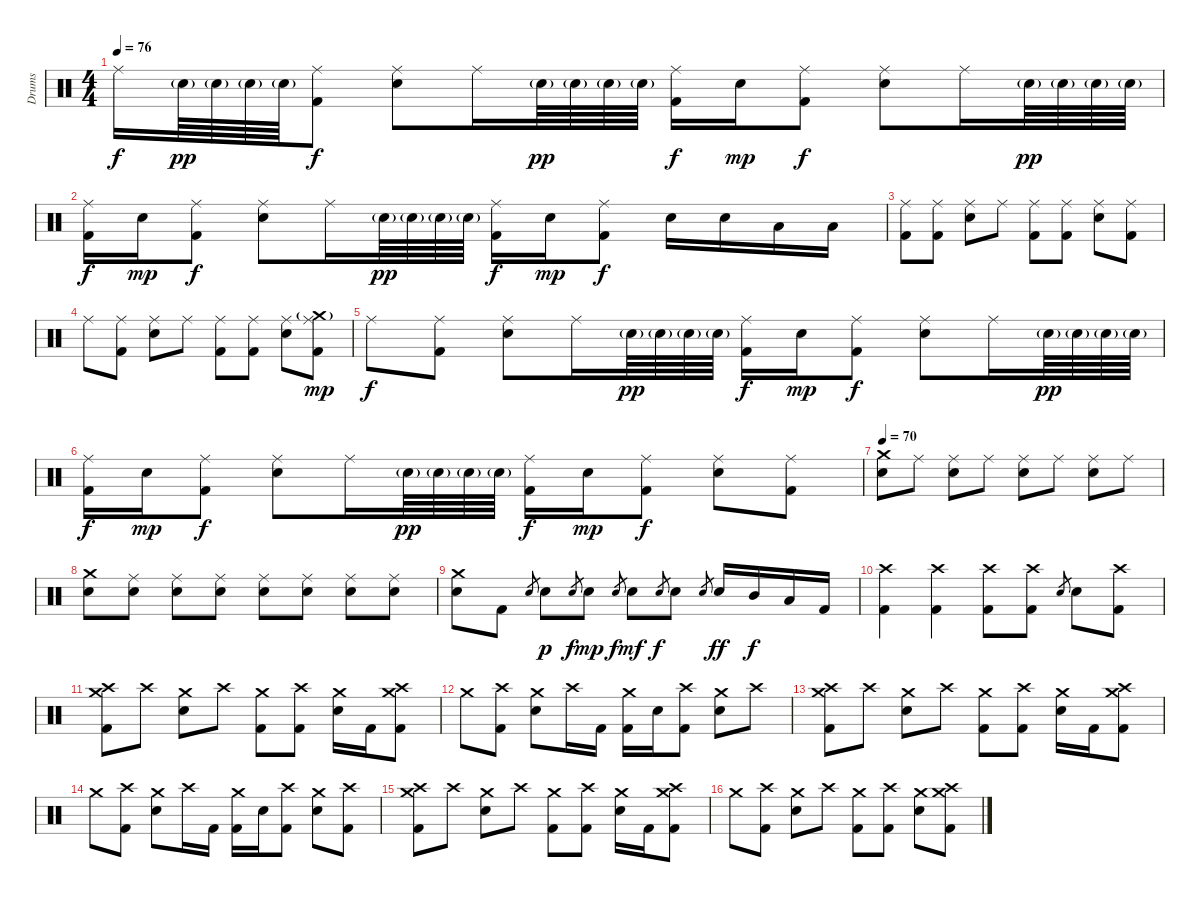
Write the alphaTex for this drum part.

\track ("Drums" "Drums") {instrument percussion}
\staff {score}
\articulation defaults
\ts (4 4)
\tempo 76
\clef neutral
\ks c "Ride (middle)".16{dy f} "Snare (hit) 2"{g}.64{dy pp} "Snare (hit) 2"{g}.64 "Snare (hit) 2"{g}.64 "Snare (hit) 2"{g}.64
("Ride (middle)" "Kick (hit) 2").8{dy f} ("Ride (middle)" "Snare (hit) 2").8 "Ride (middle)".16 "Snare (hit) 2"{g}.64{dy pp} "Snare (hit) 2"{g}.64 "Snare (hit) 2"{g}.64 "Snare (hit) 2"{g}.64 ("Ride (middle)" "Kick (hit) 2").16{dy f} "Snare (hit) 2".16{dy mp} ("Ride (middle)" "Kick (hit) 2").8{dy f} ("Ride (middle)" "Snare (hit) 2").8 "Ride (middle)".16 "Snare (hit) 2"{g}.64{dy pp} "Snare (hit) 2"{g}.64 "Snare (hit) 2"{g}.64 "Snare (hit) 2"{g}.64 |
("Ride (middle)" "Kick (hit) 2").16{dy f} "Snare (hit) 2".16{dy mp} ("Ride (middle)" "Kick (hit) 2").8{dy f} ("Ride (middle)" "Snare (hit) 2").8 "Ride (middle)".16 "Snare (hit) 2"{g}.64{dy pp} "Snare (hit) 2"{g}.64 "Snare (hit) 2"{g}.64 "Snare (hit) 2"{g}.64 ("Ride (middle)" "Kick (hit) 2").16{dy f} "Snare (hit) 2".16{dy mp} ("Ride (middle)" "Kick (hit) 2").8{dy f} "Snare (hit) 2".16 "Snare (hit) 2".16 "Low Floor Tom (hit)".16 "Low Floor Tom (hit)".16 |
("Ride (middle)" "Kick (hit) 2").8 ("Ride (middle)" "Kick (hit) 2").8 ("Ride (middle)" "Snare (hit) 2").8 "Ride (middle)".8 ("Ride (middle)" "Kick (hit) 2").8 ("Ride (middle)" "Kick (hit) 2").8 ("Ride (middle)" "Snare (hit) 2").8 ("Ride (middle)" "Kick (hit) 2").8 |
"Ride (middle)".8 ("Ride (middle)" "Kick (hit) 2").8 ("Ride (middle)" "Snare (hit) 2").8 "Ride (middle)".8 ("Ride (middle)" "Kick (hit) 2").8 ("Ride (middle)" "Kick (hit) 2").8 ("Ride (middle)" "Snare (hit) 2").8 ("Crash medium (hit)"{g} "Ride (middle)" "Kick (hit) 2").8{dy mp} |
"Ride (middle)".8{dy f} ("Ride (middle)" "Kick (hit) 2").8 ("Ride (middle)" "Snare (hit) 2").8 "Ride (middle)".16 "Snare (hit) 2"{g}.64{dy pp} "Snare (hit) 2"{g}.64 "Snare (hit) 2"{g}.64 "Snare (hit) 2"{g}.64 ("Ride (middle)" "Kick (hit) 2").16{dy f} "Snare (hit) 2".16{dy mp} ("Ride (middle)" "Kick (hit) 2").8{dy f} ("Ride (middle)" "Snare (hit) 2").8 "Ride (middle)".16 "Snare (hit) 2"{g}.64{dy pp} "Snare (hit) 2"{g}.64 "Snare (hit) 2"{g}.64 "Snare (hit) 2"{g}.64 |
("Ride (middle)" "Kick (hit) 2").16{dy f} "Snare (hit) 2".16{dy mp} ("Ride (middle)" "Kick (hit) 2").8{dy f} ("Ride (middle)" "Snare (hit) 2").8 "Ride (middle)".16 "Snare (hit) 2"{g}.64{dy pp} "Snare (hit) 2"{g}.64 "Snare (hit) 2"{g}.64 "Snare (hit) 2"{g}.64 ("Ride (middle)" "Kick (hit) 2").16{dy f} "Snare (hit) 2".16{dy mp} ("Ride (middle)" "Kick (hit) 2").8{dy f} ("Ride (middle)" "Snare (hit) 2").8 ("Ride (middle)" "Kick (hit) 2").8 |
\tempo 70
("Crash medium (hit)" "Snare (hit) 2").8 "Ride (middle)".8 ("Ride (middle)" "Snare (hit) 2").8 "Ride (middle)".8 ("Ride (middle)" "Snare (hit) 2").8 "Ride (middle)".8 ("Ride (middle)" "Snare (hit) 2").8 "Ride (middle)".8 |
("Crash medium (hit)" "Snare (hit) 2").8 ("Ride (middle)" "Snare (hit) 2").8 ("Ride (middle)" "Snare (hit) 2").8 ("Ride (middle)" "Snare (hit) 2").8 ("Ride (middle)" "Snare (hit) 2").8 ("Ride (middle)" "Snare (hit) 2").8 ("Ride (middle)" "Snare (hit) 2").8 ("Ride (middle)" "Snare (hit) 2").8 |
("Crash medium (hit)" "Snare (hit) 2").8 "Kick (hit) 2".8 "Snare (hit) 2".8{gr} "Snare (hit) 2".8{dy p} "Snare (hit) 2".8{gr dy f} "Snare (hit) 2".8{dy mp} "Snare (hit) 2".8{gr dy f} "Snare (hit) 2".8{dy mf} "Snare (hit) 2".8{gr dy f} "Snare (hit) 2".8 "Snare (hit) 2".8{gr} "Snare (hit) 2".16{dy ff} "Mid Tom (hit)".16{dy f} "Low Tom (hit)".16 "Kick (hit) 2".16 |
("Crash high (hit)" "Kick (hit) 2").4 ("Crash high (hit)" "Kick (hit) 2").4 ("Crash high (hit)" "Kick (hit) 2").8 ("Crash high (hit)" "Kick (hit) 2").8 "Snare (hit) 2".8{gr} "Snare (hit) 2".8 ("Crash high (hit)" "Kick (hit) 2").8 |
("Crash high (hit)" "Crash medium (hit)" "Kick (hit) 2").8 "Crash high (hit)".8 ("Crash medium (hit)" "Snare (hit) 2").8 "Crash high (hit)".8 ("Crash medium (hit)" "Kick (hit) 2").8 ("Crash high (hit)" "Kick (hit) 2").8 ("Crash medium (hit)" "Snare (hit) 2").16 "Kick (hit) 2".16 ("Crash high (hit)" "Crash medium (hit)" "Kick (hit) 2").8 |
"Crash medium (hit)".8 ("Crash high (hit)" "Kick (hit) 2").8 ("Crash medium (hit)" "Snare (hit) 2").8 "Crash high (hit)".16 "Kick (hit) 2".16 ("Crash medium (hit)" "Kick (hit) 2").16 "Snare (hit) 2".16 ("Crash high (hit)" "Kick (hit) 2").8 ("Crash medium (hit)" "Snare (hit) 2").8 "Crash high (hit)".8 |
("Crash high (hit)" "Crash medium (hit)" "Kick (hit) 2").8 "Crash high (hit)".8 ("Crash medium (hit)" "Snare (hit) 2").8 "Crash high (hit)".8 ("Crash medium (hit)" "Kick (hit) 2").8 ("Crash high (hit)" "Kick (hit) 2").8 ("Crash medium (hit)" "Snare (hit) 2").16 "Kick (hit) 2".16 ("Crash high (hit)" "Crash medium (hit)" "Kick (hit) 2").8 |
"Crash medium (hit)".8 ("Crash high (hit)" "Kick (hit) 2").8 ("Crash medium (hit)" "Snare (hit) 2").8 "Crash high (hit)".16 "Kick (hit) 2".16 ("Crash medium (hit)" "Kick (hit) 2").16 "Snare (hit) 2".16 ("Crash high (hit)" "Kick (hit) 2").8 ("Crash medium (hit)" "Snare (hit) 2").8 ("Crash high (hit)" "Kick (hit) 2").8 |
("Crash high (hit)" "Crash medium (hit)" "Kick (hit) 2").8 "Crash high (hit)".8 ("Crash medium (hit)" "Snare (hit) 2").8 "Crash high (hit)".8 ("Crash medium (hit)" "Kick (hit) 2").8 ("Crash high (hit)" "Kick (hit) 2").8 ("Crash medium (hit)" "Snare (hit) 2").16 "Kick (hit) 2".16 ("Crash high (hit)" "Crash medium (hit)" "Kick (hit) 2").8 |
"Crash medium (hit)".8 ("Crash high (hit)" "Kick (hit) 2").8 ("Crash medium (hit)" "Snare (hit) 2").8 "Crash high (hit)".8 ("Crash medium (hit)" "Kick (hit) 2").8 ("Crash high (hit)" "Kick (hit) 2").8 ("Crash medium (hit)" "Snare (hit) 2").8 ("Crash high (hit)" "Crash medium (hit)" "Kick (hit) 2").8
